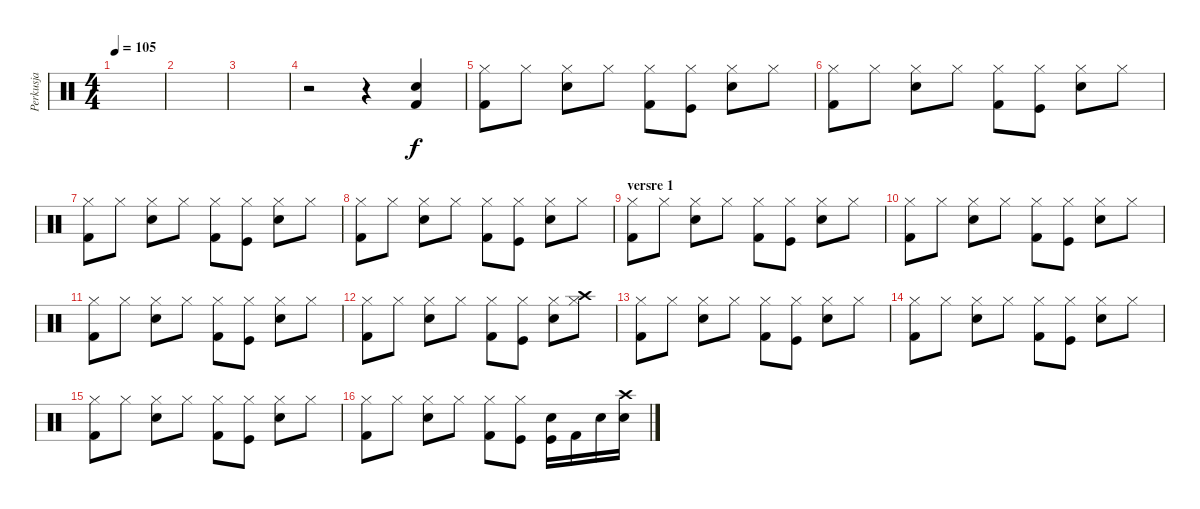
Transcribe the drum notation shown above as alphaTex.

\track ("Perkusja" "Perkusja") {instrument percussion}
\staff {score}
\articulation defaults
\ts (4 4)
\tempo 105
\clef neutral
\ks c
|
|
|
r.2 r.4 ("Kick (hit) 2" "Snare (hit) 2").4 |
("Kick (hit) 2" "Hi-Hat (closed)").8 "Hi-Hat (closed)".8 ("Snare (hit) 2" "Hi-Hat (closed)").8 "Hi-Hat (closed)".8 ("Kick (hit) 2" "Hi-Hat (closed)").8 ("Kick (hit)" "Hi-Hat (closed)").8 ("Snare (hit) 2" "Hi-Hat (closed)").8 "Hi-Hat (closed)".8 |
("Kick (hit) 2" "Hi-Hat (closed)").8 "Hi-Hat (closed)".8 ("Snare (hit) 2" "Hi-Hat (closed)").8 "Hi-Hat (closed)".8 ("Kick (hit) 2" "Hi-Hat (closed)").8 ("Kick (hit)" "Hi-Hat (closed)").8 ("Snare (hit) 2" "Hi-Hat (closed)").8 "Hi-Hat (closed)".8 |
("Kick (hit) 2" "Hi-Hat (closed)").8 "Hi-Hat (closed)".8 ("Snare (hit) 2" "Hi-Hat (closed)").8 "Hi-Hat (closed)".8 ("Kick (hit) 2" "Hi-Hat (closed)").8 ("Kick (hit)" "Hi-Hat (closed)").8 ("Snare (hit) 2" "Hi-Hat (closed)").8 "Hi-Hat (closed)".8 |
("Kick (hit) 2" "Hi-Hat (closed)").8 "Hi-Hat (closed)".8 ("Snare (hit) 2" "Hi-Hat (closed)").8 "Hi-Hat (closed)".8 ("Kick (hit) 2" "Hi-Hat (closed)").8 ("Kick (hit)" "Hi-Hat (closed)").8 ("Snare (hit) 2" "Hi-Hat (closed)").8 "Hi-Hat (closed)".8 |
\section ("" "versre 1")
("Kick (hit) 2" "Hi-Hat (closed)").8 "Hi-Hat (closed)".8 ("Snare (hit) 2" "Hi-Hat (closed)").8 "Hi-Hat (closed)".8 ("Kick (hit) 2" "Hi-Hat (closed)").8 ("Kick (hit)" "Hi-Hat (closed)").8 ("Snare (hit) 2" "Hi-Hat (closed)").8 "Hi-Hat (closed)".8 |
("Kick (hit) 2" "Hi-Hat (closed)").8 "Hi-Hat (closed)".8 ("Snare (hit) 2" "Hi-Hat (closed)").8 "Hi-Hat (closed)".8 ("Kick (hit) 2" "Hi-Hat (closed)").8 ("Kick (hit)" "Hi-Hat (closed)").8 ("Snare (hit) 2" "Hi-Hat (closed)").8 "Hi-Hat (closed)".8 |
("Kick (hit) 2" "Hi-Hat (closed)").8 "Hi-Hat (closed)".8 ("Snare (hit) 2" "Hi-Hat (closed)").8 "Hi-Hat (closed)".8 ("Kick (hit) 2" "Hi-Hat (closed)").8 ("Kick (hit)" "Hi-Hat (closed)").8 ("Snare (hit) 2" "Hi-Hat (closed)").8 "Hi-Hat (closed)".8 |
("Kick (hit) 2" "Hi-Hat (closed)").8 "Hi-Hat (closed)".8 ("Snare (hit) 2" "Hi-Hat (closed)").8 "Hi-Hat (closed)".8 ("Kick (hit) 2" "Hi-Hat (closed)").8 ("Kick (hit)" "Hi-Hat (closed)").8 ("Snare (hit) 2" "Hi-Hat (closed)").8 ("Crash high (hit)" "Hi-Hat (closed)").8 |
("Kick (hit) 2" "Hi-Hat (closed)").8 "Hi-Hat (closed)".8 ("Snare (hit) 2" "Hi-Hat (closed)").8 "Hi-Hat (closed)".8 ("Kick (hit) 2" "Hi-Hat (closed)").8 ("Kick (hit)" "Hi-Hat (closed)").8 ("Snare (hit) 2" "Hi-Hat (closed)").8 "Hi-Hat (closed)".8 |
("Kick (hit) 2" "Hi-Hat (closed)").8 "Hi-Hat (closed)".8 ("Snare (hit) 2" "Hi-Hat (closed)").8 "Hi-Hat (closed)".8 ("Kick (hit) 2" "Hi-Hat (closed)").8 ("Kick (hit)" "Hi-Hat (closed)").8 ("Snare (hit) 2" "Hi-Hat (closed)").8 "Hi-Hat (closed)".8 |
("Kick (hit) 2" "Hi-Hat (closed)").8 "Hi-Hat (closed)".8 ("Snare (hit) 2" "Hi-Hat (closed)").8 "Hi-Hat (closed)".8 ("Kick (hit) 2" "Hi-Hat (closed)").8 ("Kick (hit)" "Hi-Hat (closed)").8 ("Snare (hit) 2" "Hi-Hat (closed)").8 "Hi-Hat (closed)".8 |
("Kick (hit) 2" "Hi-Hat (closed)").8 "Hi-Hat (closed)".8 ("Snare (hit) 2" "Hi-Hat (closed)").8 "Hi-Hat (closed)".8 ("Kick (hit) 2" "Hi-Hat (closed)").8 ("Kick (hit)" "Hi-Hat (closed)").8 ("Kick (hit)" "Snare (hit) 2").16 "Kick (hit) 2".16 "Snare (hit) 2".16 ("Electric Snare (hit)" "Crash high (hit)").16
